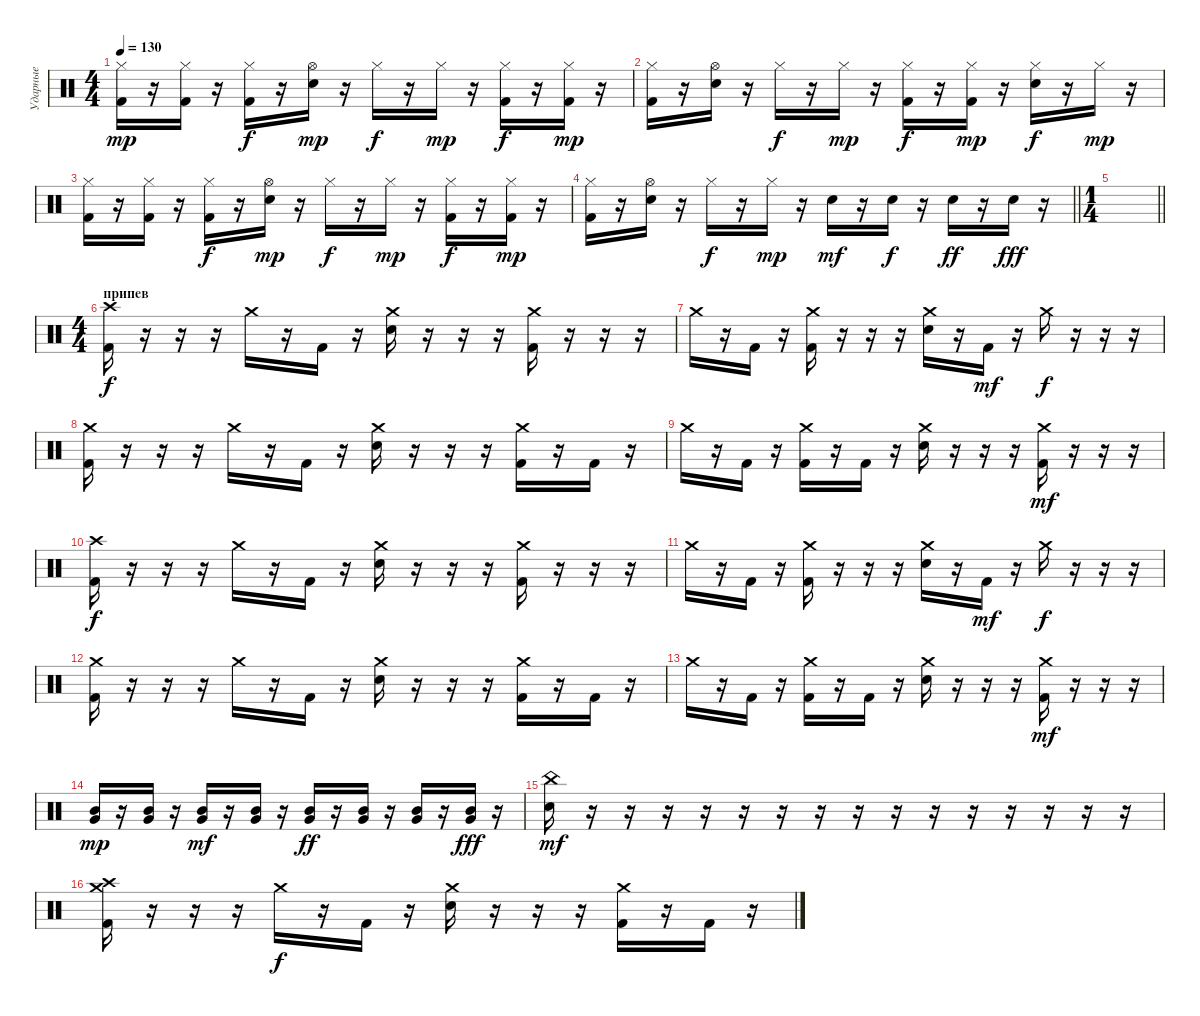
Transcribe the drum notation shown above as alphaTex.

\track ("Ударные" "Ударные") {instrument percussion}
\staff {score}
\articulation defaults
\ts (4 4)
\tempo 130
\clef neutral
\ks c
("Hi-Hat (closed)" "Kick (hit) 2").16{dy mp} r.16 ("Hi-Hat (closed)" "Kick (hit) 2").16 r.16 ("Hi-Hat (closed)" "Kick (hit) 2").16{dy f} r.16 ("Hi-Hat (open)" "Electric Snare (hit)").16{dy mp} r.16 "Hi-Hat (closed)".16{dy f} r.16 "Hi-Hat (closed)".16{dy mp} r.16 ("Hi-Hat (closed)" "Kick (hit) 2").16{dy f} r.16 ("Hi-Hat (closed)" "Kick (hit) 2").16{dy mp} r.16 |
("Hi-Hat (closed)" "Kick (hit) 2").16 r.16 ("Hi-Hat (open)" "Electric Snare (hit)").16 r.16 "Hi-Hat (closed)".16{dy f} r.16 "Hi-Hat (closed)".16{dy mp} r.16 ("Hi-Hat (closed)" "Kick (hit) 2").16{dy f} r.16 ("Hi-Hat (closed)" "Kick (hit) 2").16{dy mp} r.16 ("Hi-Hat (closed)" "Electric Snare (hit)").16{dy f} r.16 "Hi-Hat (closed)".16{dy mp} r.16 |
("Hi-Hat (closed)" "Kick (hit) 2").16 r.16 ("Hi-Hat (closed)" "Kick (hit) 2").16 r.16 ("Hi-Hat (closed)" "Kick (hit) 2").16{dy f} r.16 ("Hi-Hat (open)" "Electric Snare (hit)").16{dy mp} r.16 "Hi-Hat (closed)".16{dy f} r.16 "Hi-Hat (closed)".16{dy mp} r.16 ("Hi-Hat (closed)" "Kick (hit) 2").16{dy f} r.16 ("Hi-Hat (closed)" "Kick (hit) 2").16{dy mp} r.16 |
\barLineRight lightlight
("Hi-Hat (closed)" "Kick (hit) 2").16 r.16 ("Hi-Hat (open)" "Electric Snare (hit)").16 r.16 "Hi-Hat (closed)".16{dy f} r.16 "Hi-Hat (closed)".16{dy mp} r.16 "Electric Snare (hit)".16{dy mf} r.16 "Electric Snare (hit)".16{dy f} r.16 "Electric Snare (hit)".16{dy ff} r.16 "Electric Snare (hit)".16{dy fff} r.16 |
\ts (1 4)
\barLineRight lightlight
|
\ts (4 4)
\section ("" "припев")
("Crash high (hit)" "Kick (hit) 2").16{dy f} r.16 r.16 r.16 "Crash medium (hit)".16 r.16 "Kick (hit) 2".16 r.16 ("Crash medium (hit)" "Electric Snare (hit)").16 r.16 r.16 r.16 ("Crash medium (hit)" "Kick (hit) 2").16 r.16 r.16 r.16 |
"Crash medium (hit)".16 r.16 "Kick (hit) 2".16 r.16 ("Crash medium (hit)" "Kick (hit) 2").16 r.16 r.16 r.16 ("Crash medium (hit)" "Electric Snare (hit)").16 r.16 "Kick (hit) 2".16{dy mf} r.16 "Crash medium (hit)".16{dy f} r.16 r.16 r.16 |
("Crash medium (hit)" "Kick (hit) 2").16 r.16 r.16 r.16 "Crash medium (hit)".16 r.16 "Kick (hit) 2".16 r.16 ("Crash medium (hit)" "Electric Snare (hit)").16 r.16 r.16 r.16 ("Crash medium (hit)" "Kick (hit) 2").16 r.16 "Kick (hit) 2".16 r.16 |
"Crash medium (hit)".16 r.16 "Kick (hit) 2".16 r.16 ("Crash medium (hit)" "Kick (hit) 2").16 r.16 "Kick (hit) 2".16 r.16 ("Crash medium (hit)" "Electric Snare (hit)").16 r.16 r.16 r.16 ("Crash medium (hit)" "Kick (hit) 2").16{dy mf} r.16 r.16 r.16 |
("Crash high (hit)" "Kick (hit) 2").16{dy f} r.16 r.16 r.16 "Crash medium (hit)".16 r.16 "Kick (hit) 2".16 r.16 ("Crash medium (hit)" "Electric Snare (hit)").16 r.16 r.16 r.16 ("Crash medium (hit)" "Kick (hit) 2").16 r.16 r.16 r.16 |
"Crash medium (hit)".16 r.16 "Kick (hit) 2".16 r.16 ("Crash medium (hit)" "Kick (hit) 2").16 r.16 r.16 r.16 ("Crash medium (hit)" "Electric Snare (hit)").16 r.16 "Kick (hit) 2".16{dy mf} r.16 "Crash medium (hit)".16{dy f} r.16 r.16 r.16 |
("Crash medium (hit)" "Kick (hit) 2").16 r.16 r.16 r.16 "Crash medium (hit)".16 r.16 "Kick (hit) 2".16 r.16 ("Crash medium (hit)" "Electric Snare (hit)").16 r.16 r.16 r.16 ("Crash medium (hit)" "Kick (hit) 2").16 r.16 "Kick (hit) 2".16 r.16 |
"Crash medium (hit)".16 r.16 "Kick (hit) 2".16 r.16 ("Crash medium (hit)" "Kick (hit) 2").16 r.16 "Kick (hit) 2".16 r.16 ("Crash medium (hit)" "Electric Snare (hit)").16 r.16 r.16 r.16 ("Crash medium (hit)" "Kick (hit) 2").16{dy mf} r.16 r.16 r.16 |
("Mid Tom (hit)" "Very Low Tom (hit)").16{dy mp} r.16 ("Mid Tom (hit)" "Very Low Tom (hit)").16 r.16 ("Mid Tom (hit)" "Very Low Tom (hit)").16{dy mf} r.16 ("Mid Tom (hit)" "Very Low Tom (hit)").16 r.16 ("Mid Tom (hit)" "Very Low Tom (hit)").16{dy ff} r.16 ("Mid Tom (hit)" "Very Low Tom (hit)").16 r.16 ("Mid Tom (hit)" "Very Low Tom (hit)").16 r.16 ("Mid Tom (hit)" "Very Low Tom (hit)").16{dy fff} r.16 |
("China (hit)" "Electric Snare (hit)").16{dy mf} r.16 r.16 r.16 r.16 r.16 r.16 r.16 r.16 r.16 r.16 r.16 r.16 r.16 r.16 r.16 |
("Crash high (hit)" "Crash medium (hit)" "Kick (hit) 2").16 r.16 r.16 r.16 "Crash medium (hit)".16{dy f} r.16 "Kick (hit) 2".16 r.16 ("Crash medium (hit)" "Electric Snare (hit)").16 r.16 r.16 r.16 ("Crash medium (hit)" "Kick (hit) 2").16 r.16 "Kick (hit) 2".16 r.16
